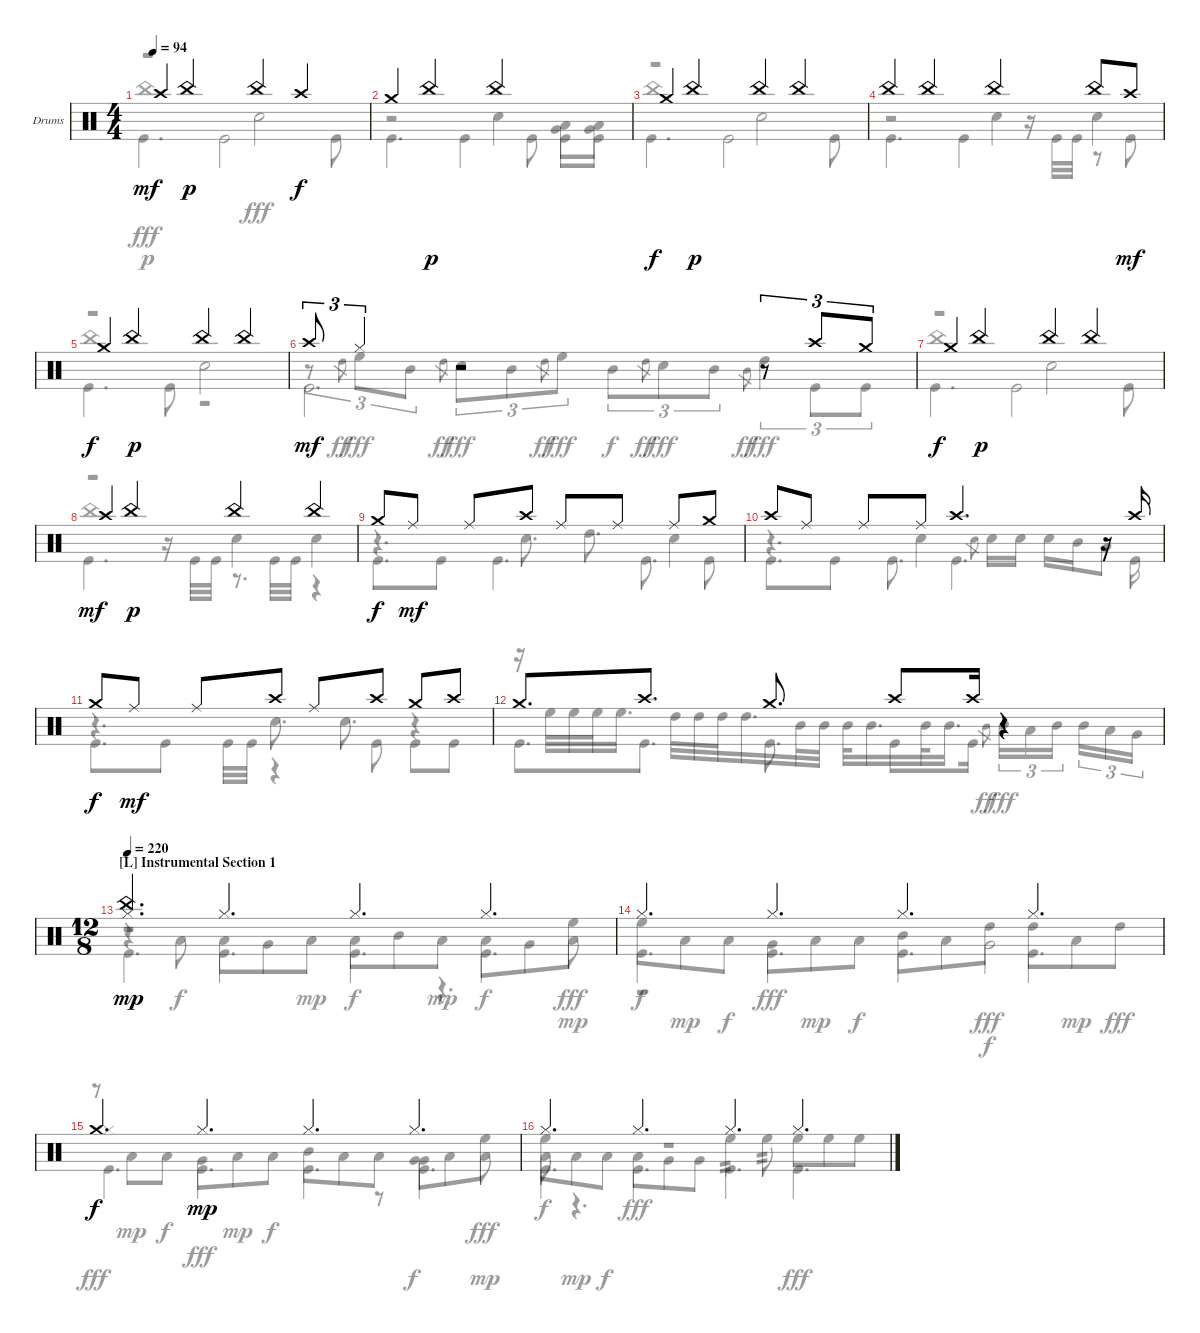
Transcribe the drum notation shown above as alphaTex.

\defaultSystemsLayout 4
\bracketExtendMode groupsimilarinstruments
\firstSystemTrackNameOrientation horizontal
\otherSystemsTrackNameOrientation horizontal
\track ("Drumkit" "Drums") {instrument percussion}
\staff {score}
\articulation defaults
\voice
\ts (4 4)
\tempo 94
\clef neutral
\ks c "Crash high (hit)".4{dy mf} "China (hit)".4{dy p} "China (hit)".4 "Crash high (hit)".4{dy f}
|
"Crash medium (hit)".4 "China (hit)".4{dy p} "China (hit)".2 |
"Crash medium (hit)".4{dy f} "China (hit)".4{dy p} "China (hit)".4 "China (hit)".4 |
"China (hit)".4 "China (hit)".4 "China (hit)".4 "China (hit)".8 "Crash high (hit)".8{dy mf} |
"Crash medium (hit)".4{dy f} "China (hit)".4{dy p} "China (hit)".4 "China (hit)".4 |
"Crash high (hit)".8{tu (3 2) dy mf} "Hi-Hat (closed)".4{tu (3 2)} r.2 r.8{tu (3 2)} "Crash high (hit)".8{tu (3 2)} "Crash medium (hit)".8{tu (3 2)} |
"Crash medium (hit)".4{dy f} "China (hit)".4{dy p} "China (hit)".4 "China (hit)".4 |
"Crash high (hit)".4{dy mf} "China (hit)".4{dy p} "China (hit)".4 "China (hit)".4 |
"Crash medium (hit)".8{dy f} "Ride (middle)".8{dy mf} "Ride (middle)".8 "Crash high (hit)".8 "Ride (middle)".8 "Ride (middle)".8 "Ride (middle)".8 "Crash medium (hit)".8 |
"Crash high (hit)".8 "Ride (middle)".8 "Ride (middle)".8 "Ride (middle)".8 "Crash high (hit)".4{d} r.16 "Crash high (hit)".16 |
"Crash medium (hit)".8{dy f} "Ride (middle)".8{dy mf} "Ride (middle)".8 "Crash high (hit)".8 "Ride (middle)".8 "Crash high (hit)".8 "Crash medium (hit)".8 "Crash high (hit)".8 |
"Crash medium (hit)".8{d} "Crash high (hit)".8{d} "Crash medium (hit)".8{d} "Crash high (hit)".8 "Crash high (hit)".16 r.4 |
\ts (12 8)
\section ("L" "Instrumental Section 1")
\tempo 220
("China (hit)" "Hi-Hat (closed)").4{d dy mp} "Hi-Hat (closed)".4{d} "Hi-Hat (closed)".4{d} "Hi-Hat (closed)".4{d} |
"Hi-Hat (closed)".4{d} "Hi-Hat (closed)".4{d} "Hi-Hat (closed)".4{d} "Hi-Hat (closed)".4{d} |
"Crash medium (hit)".4{d dy f} "Hi-Hat (closed)".4{d dy mp} "Hi-Hat (closed)".4{d} "Hi-Hat (closed)".4{d} |
"Hi-Hat (closed)".4{d} "Hi-Hat (closed)".4{d} "Hi-Hat (closed)".4{d} "Hi-Hat (closed)".4{d}
\voice
\clef neutral
\ottava regular
\simile none
\ks c
r.2{dy fff} "Snare (hit) 2".2 |
r.2 "Snare (hit) 2".4 ("Low Tom (hit)" "Very Low Tom (hit)").8 ("Very Low Tom (hit)" "Low Tom (hit)").8 |
r.2 "Snare (hit) 2".2 |
r.2 "Snare (hit) 2".4 "Snare (hit) 2".4 |
r.2 "Snare (hit) 2".2 |
r.8{tu (3 2)} "High Tom (hit)".8{gr dy ff} "High Floor Tom (hit)".8{tu (3 2) dy fff} "Mid Tom (hit)".8{tu (3 2)} "High Tom (hit)".8{gr dy ff} "Snare (hit) 2".8{tu (3 2) dy fff} "Mid Tom (hit)".8{tu (3 2)} "High Tom (hit)".8{gr dy ff} "High Floor Tom (hit)".8{tu (3 2) dy fff} "Mid Tom (hit)".8{tu (3 2) dy f} "High Tom (hit)".8{gr dy ff} "Snare (hit) 2".8{tu (3 2) dy fff} "Mid Tom (hit)".8{tu (3 2)} "Mid Tom (hit)".8{gr dy ff} "High Tom (hit)".4{dy fff} |
r.2 "Snare (hit) 2".2 |
r.2 "Snare (hit) 2".4 "Snare (hit) 2".4 |
r.4{d} "Snare (hit) 2".8{d} "High Tom (hit)".8{d} "Snare (hit) 2".4 |
r.4{d} "Snare (hit) 2".4 "Snare (hit) 2".8{gr} "Snare (hit) 2".16 "Snare (hit) 2".16 "Snare (hit) 2".16 "Mid Tom (hit)".16 "Low Tom (hit)".8 |
r.4{d} "Snare (hit) 2".8{d} "Snare (hit) 2".8{d} r.4 |
r.16 "High Floor Tom (hit)".32 "High Floor Tom (hit)".32 "High Floor Tom (hit)".32 "High Floor Tom (hit)".16{d} "High Tom (hit)".32 "High Tom (hit)".32 "High Tom (hit)".32 "High Tom (hit)".16{d} "Mid Tom (hit)".32 "Mid Tom (hit)".32 "Mid Tom (hit)".32 "Mid Tom (hit)".16{d} "Mid Tom (hit)".32 "Mid Tom (hit)".16{d} "Mid Tom (hit)".8{gr dy ff} "Mid Tom (hit)".16{tu (3 2) dy fff} "Low Tom (hit)".16{tu (3 2)} "Mid Tom (hit)".16{tu (3 2)} "Mid Tom (hit)".16{tu (3 2)} "Low Tom (hit)".16{tu (3 2)} "Very Low Tom (hit)".16{tu (3 2)} |
r.4 "Low Tom (hit)".8{dy f} "Low Tom (hit)".8 "Very Low Tom (hit)".8 "Low Tom (hit)".8{dy mp} "Low Tom (hit)".8{dy f} "Mid Tom (hit)".8 "Low Tom (hit)".8{dy mp} "Low Tom (hit)".8{dy f} "Very Low Tom (hit)".8 "High Floor Tom (hit)".8{dy fff} |
"High Floor Tom (hit)".8 "Low Tom (hit)".8{dy mp} "Low Tom (hit)".8{dy f} "Very Low Tom (hit)".8 "Low Tom (hit)".8{dy mp} "Low Tom (hit)".8{dy f} "Mid Tom (hit)".8 "Low Tom (hit)".8 "High Tom (hit)".8{dy fff} "High Tom (hit)".8 "Low Tom (hit)".8{dy mp} "High Tom (hit)".8{dy fff} |
r.8 "Low Tom (hit)".8{dy mp} "Low Tom (hit)".8{dy f} "Very Low Tom (hit)".8 "Low Tom (hit)".8{dy mp} "Low Tom (hit)".8{dy f} "Mid Tom (hit)".8 "Low Tom (hit)".8 "Low Tom (hit)".8 "Very Low Tom (hit)".8 "Low Tom (hit)".8 "High Floor Tom (hit)".8{dy fff} |
"High Floor Tom (hit)".8 "Low Tom (hit)".8{dy mp} "Low Tom (hit)".8{dy f} "Low Tom (hit)".8 "Very Low Tom (hit)".8 "Very Low Tom (hit)".8 "High Floor Tom (hit)".4{tp 2} "High Floor Tom (hit)".8{tp 2} "High Floor Tom (hit)".8{dy fff} "High Floor Tom (hit)".8 "High Floor Tom (hit)".8
\voice
\clef neutral
\ottava regular
\simile none
\ks c "Kick (hit)".4{d dy fff} "Kick (hit)".2 "Kick (hit)".8
|
"Kick (hit)".4{d} "Kick (hit)".4 "Kick (hit)".8 "Kick (hit)".8 "Kick (hit)".8 |
"Kick (hit)".4{d} "Kick (hit)".2 "Kick (hit)".8 |
"Kick (hit)".4{d} "Kick (hit)".4 r.16 "Kick (hit)".32 "Kick (hit)".32 r.8 "Kick (hit)".8 |
"Kick (hit)".4{d} "Kick (hit)".8 r.2 |
"Kick (hit)".2{d} r.8{tu (3 2)} "Kick (hit)".8{tu (3 2)} "Kick (hit)".8{tu (3 2)} |
"Kick (hit)".4{d} "Kick (hit)".2 "Kick (hit)".8 |
"Kick (hit)".4{d} r.16 "Kick (hit)".32 "Kick (hit)".32 r.8{d} "Kick (hit)".32 "Kick (hit)".32 r.4 |
"Kick (hit)".8{d} "Kick (hit)".8 "Kick (hit)".4{d} "Kick (hit)".8{d} "Kick (hit)".8 |
"Kick (hit)".8{d} "Kick (hit)".8 "Kick (hit)".8{d} "Kick (hit)".4{d} r.16 "Kick (hit)".16 |
"Kick (hit)".8{d} "Kick (hit)".8 "Kick (hit)".32 "Kick (hit)".32 r.4 "Kick (hit)".8 "Kick (hit)".8 "Kick (hit)".8 |
"Kick (hit)".8{d} "Kick (hit)".8{d} "Kick (hit)".8{d} "Kick (hit)".8 "Kick (hit)".16 r.4 |
"Kick (hit)".4{d} "Kick (hit)".4{d} "Kick (hit)".4{d} "Kick (hit)".4{d} |
"Kick (hit)".4{d dy f} "Kick (hit)".4{d dy fff} "Kick (hit)".4{d} "Kick (hit)".4{d} |
"Kick (hit)".4{d dy f} "Kick (hit)".4{d dy fff} "Kick (hit)".4{d} "Kick (hit)".4{d} |
"Kick (hit)".4{d dy f} "Kick (hit)".4{d dy fff} "Kick (hit)".4{d} "Kick (hit)".4{d}
\voice
\clef neutral
\ottava regular
\simile none
\ks c "China (hit)".1{dy p}
|
|
"China (hit)".1 |
|
"China (hit)".1 |
|
"China (hit)".1 |
"China (hit)".1 |
|
|
|
|
r.1 r.4{d} "Low Tom (hit)".8{dy mp} |
r.1 "Very Low Tom (hit)".2{dy f} |
"Hi-Hat (closed)".1{dy fff} r.8 "Very Low Tom (hit)".4{dy f} "Low Tom (hit)".8{dy mp} |
"Low Tom (hit)".8{dy f} r.4{d} r.1
